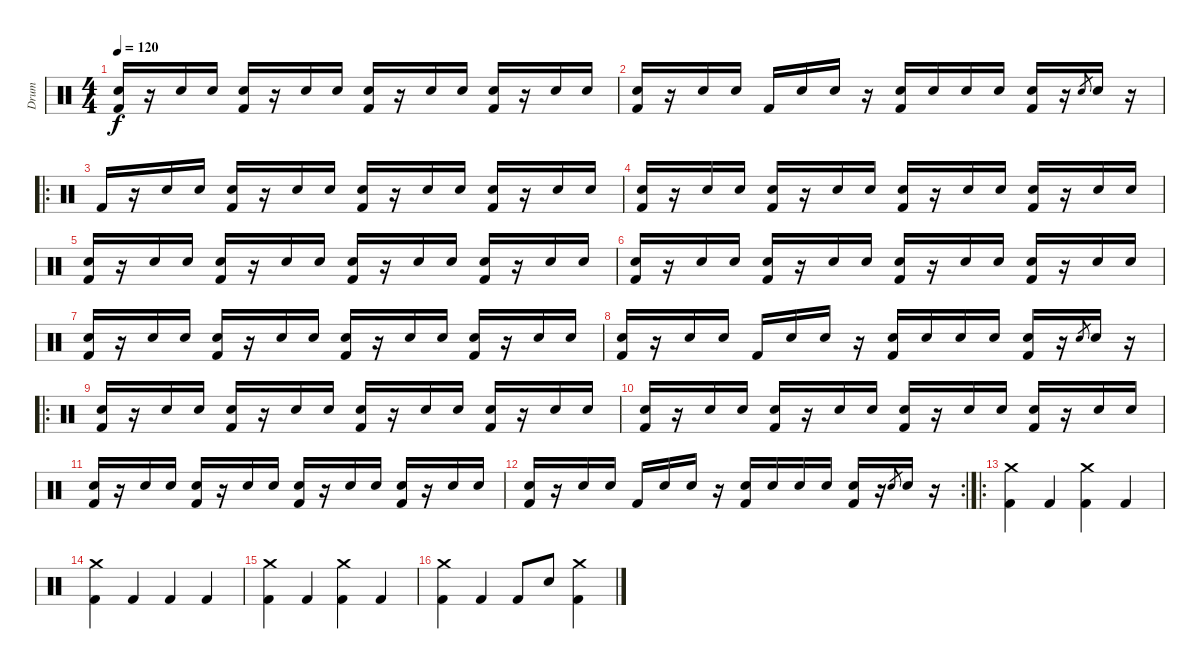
\track ("Drum" "Drum") {instrument percussion}
\staff {score}
\articulation defaults
\ts (4 4)
\tempo 120
\clef neutral
\ks c
("Electric Snare (hit)" "Kick (hit) 2").16{dy f} r.16 "Electric Snare (hit)".16 "Electric Snare (hit)".16 ("Electric Snare (hit)" "Kick (hit) 2").16 r.16 "Electric Snare (hit)".16 "Electric Snare (hit)".16 ("Electric Snare (hit)" "Kick (hit) 2").16 r.16 "Electric Snare (hit)".16 "Electric Snare (hit)".16 ("Electric Snare (hit)" "Kick (hit) 2").16 r.16 "Electric Snare (hit)".16 "Electric Snare (hit)".16 |
("Electric Snare (hit)" "Kick (hit) 2").16 r.16 "Electric Snare (hit)".16 "Electric Snare (hit)".16 "Kick (hit) 2".16 "Electric Snare (hit)".16 "Electric Snare (hit)".16 r.16 ("Electric Snare (hit)" "Kick (hit) 2").16 "Electric Snare (hit)".16 "Electric Snare (hit)".16 "Electric Snare (hit)".16 ("Electric Snare (hit)" "Kick (hit) 2").16 r.16 "Electric Snare (hit)".8{gr} "Electric Snare (hit)".16 r.16 |
\ro "Kick (hit) 2".16
r.16 "Electric Snare (hit)".16 "Electric Snare (hit)".16 ("Electric Snare (hit)" "Kick (hit) 2").16 r.16 "Electric Snare (hit)".16 "Electric Snare (hit)".16 ("Electric Snare (hit)" "Kick (hit) 2").16 r.16 "Electric Snare (hit)".16 "Electric Snare (hit)".16 ("Electric Snare (hit)" "Kick (hit) 2").16 r.16 "Electric Snare (hit)".16 "Electric Snare (hit)".16 |
("Electric Snare (hit)" "Kick (hit) 2").16 r.16 "Electric Snare (hit)".16 "Electric Snare (hit)".16 ("Electric Snare (hit)" "Kick (hit) 2").16 r.16 "Electric Snare (hit)".16 "Electric Snare (hit)".16 ("Electric Snare (hit)" "Kick (hit) 2").16 r.16 "Electric Snare (hit)".16 "Electric Snare (hit)".16 ("Electric Snare (hit)" "Kick (hit) 2").16 r.16 "Electric Snare (hit)".16 "Electric Snare (hit)".16 |
("Electric Snare (hit)" "Kick (hit) 2").16 r.16 "Electric Snare (hit)".16 "Electric Snare (hit)".16 ("Electric Snare (hit)" "Kick (hit) 2").16 r.16 "Electric Snare (hit)".16 "Electric Snare (hit)".16 ("Electric Snare (hit)" "Kick (hit) 2").16 r.16 "Electric Snare (hit)".16 "Electric Snare (hit)".16 ("Electric Snare (hit)" "Kick (hit) 2").16 r.16 "Electric Snare (hit)".16 "Electric Snare (hit)".16 |
("Electric Snare (hit)" "Kick (hit) 2").16 r.16 "Electric Snare (hit)".16 "Electric Snare (hit)".16 ("Electric Snare (hit)" "Kick (hit) 2").16 r.16 "Electric Snare (hit)".16 "Electric Snare (hit)".16 ("Electric Snare (hit)" "Kick (hit) 2").16 r.16 "Electric Snare (hit)".16 "Electric Snare (hit)".16 ("Electric Snare (hit)" "Kick (hit) 2").16 r.16 "Electric Snare (hit)".16 "Electric Snare (hit)".16 |
("Electric Snare (hit)" "Kick (hit) 2").16 r.16 "Electric Snare (hit)".16 "Electric Snare (hit)".16 ("Electric Snare (hit)" "Kick (hit) 2").16 r.16 "Electric Snare (hit)".16 "Electric Snare (hit)".16 ("Electric Snare (hit)" "Kick (hit) 2").16 r.16 "Electric Snare (hit)".16 "Electric Snare (hit)".16 ("Electric Snare (hit)" "Kick (hit) 2").16 r.16 "Electric Snare (hit)".16 "Electric Snare (hit)".16 |
("Electric Snare (hit)" "Kick (hit) 2").16 r.16 "Electric Snare (hit)".16 "Electric Snare (hit)".16 "Kick (hit) 2".16 "Electric Snare (hit)".16 "Electric Snare (hit)".16 r.16 ("Electric Snare (hit)" "Kick (hit) 2").16 "Electric Snare (hit)".16 "Electric Snare (hit)".16 "Electric Snare (hit)".16 ("Electric Snare (hit)" "Kick (hit) 2").16 r.16 "Electric Snare (hit)".8{gr} "Electric Snare (hit)".16 r.16 |
\ro
("Electric Snare (hit)" "Kick (hit) 2").16 r.16 "Electric Snare (hit)".16 "Electric Snare (hit)".16 ("Electric Snare (hit)" "Kick (hit) 2").16 r.16 "Electric Snare (hit)".16 "Electric Snare (hit)".16 ("Electric Snare (hit)" "Kick (hit) 2").16 r.16 "Electric Snare (hit)".16 "Electric Snare (hit)".16 ("Electric Snare (hit)" "Kick (hit) 2").16 r.16 "Electric Snare (hit)".16 "Electric Snare (hit)".16 |
("Electric Snare (hit)" "Kick (hit) 2").16 r.16 "Electric Snare (hit)".16 "Electric Snare (hit)".16 ("Electric Snare (hit)" "Kick (hit) 2").16 r.16 "Electric Snare (hit)".16 "Electric Snare (hit)".16 ("Electric Snare (hit)" "Kick (hit) 2").16 r.16 "Electric Snare (hit)".16 "Electric Snare (hit)".16 ("Electric Snare (hit)" "Kick (hit) 2").16 r.16 "Electric Snare (hit)".16 "Electric Snare (hit)".16 |
("Electric Snare (hit)" "Kick (hit) 2").16 r.16 "Electric Snare (hit)".16 "Electric Snare (hit)".16 ("Electric Snare (hit)" "Kick (hit) 2").16 r.16 "Electric Snare (hit)".16 "Electric Snare (hit)".16 ("Electric Snare (hit)" "Kick (hit) 2").16 r.16 "Electric Snare (hit)".16 "Electric Snare (hit)".16 ("Electric Snare (hit)" "Kick (hit) 2").16 r.16 "Electric Snare (hit)".16 "Electric Snare (hit)".16 |
\rc 2
("Electric Snare (hit)" "Kick (hit) 2").16 r.16 "Electric Snare (hit)".16 "Electric Snare (hit)".16 "Kick (hit) 2".16 "Electric Snare (hit)".16 "Electric Snare (hit)".16 r.16 ("Electric Snare (hit)" "Kick (hit) 2").16 "Electric Snare (hit)".16 "Electric Snare (hit)".16 "Electric Snare (hit)".16 ("Electric Snare (hit)" "Kick (hit) 2").16 r.16 "Electric Snare (hit)".8{gr} "Electric Snare (hit)".16 r.16 |
\ro
("Crash medium (hit)" "Kick (hit) 2").4 "Kick (hit) 2".4 ("Crash medium (hit)" "Kick (hit) 2").4 "Kick (hit) 2".4 |
("Crash medium (hit)" "Kick (hit) 2").4 "Kick (hit) 2".4 "Kick (hit) 2".4 "Kick (hit) 2".4 |
("Crash medium (hit)" "Kick (hit) 2").4 "Kick (hit) 2".4 ("Crash medium (hit)" "Kick (hit) 2").4 "Kick (hit) 2".4 |
("Crash medium (hit)" "Kick (hit) 2").4 "Kick (hit) 2".4 "Kick (hit) 2".8 "Electric Snare (hit)".8 ("Crash medium (hit)" "Kick (hit) 2").4
